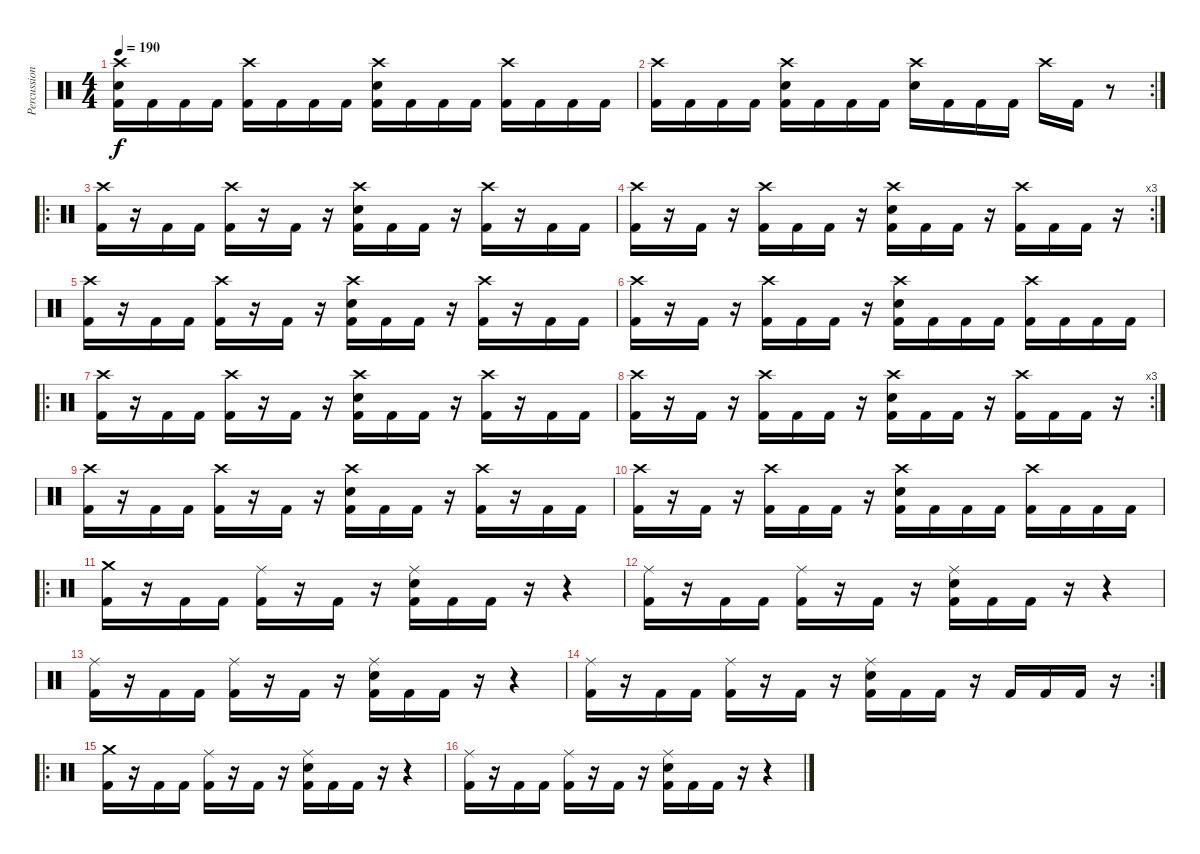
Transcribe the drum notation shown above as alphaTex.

\track ("Percussion" "Percussion") {instrument percussion}
\staff {score}
\articulation defaults
\ts (4 4)
\tempo 190
\clef neutral
\ks c
("Crash high (hit)" "Electric Snare (hit)" "Kick (hit) 2").16{dy f} "Kick (hit) 2".16 "Kick (hit) 2".16 "Kick (hit) 2".16 ("Crash high (hit)" "Kick (hit) 2").16 "Kick (hit) 2".16 "Kick (hit) 2".16 "Kick (hit) 2".16 ("Crash high (hit)" "Electric Snare (hit)" "Kick (hit) 2").16 "Kick (hit) 2".16 "Kick (hit) 2".16 "Kick (hit) 2".16 ("Crash high (hit)" "Kick (hit) 2").16 "Kick (hit) 2".16 "Kick (hit) 2".16 "Kick (hit) 2".16 |
\rc 2
("Crash high (hit)" "Kick (hit) 2").16 "Kick (hit) 2".16 "Kick (hit) 2".16 "Kick (hit) 2".16 ("Crash high (hit)" "Electric Snare (hit)" "Kick (hit) 2").16 "Kick (hit) 2".16 "Kick (hit) 2".16 "Kick (hit) 2".16 ("Crash high (hit)" "Electric Snare (hit)").16 "Kick (hit) 2".16 "Kick (hit) 2".16 "Kick (hit) 2".16 "Crash high (hit)".16 "Kick (hit) 2".16 r.8 |
\ro
("Crash high (hit)" "Kick (hit) 2").16 r.16 "Kick (hit) 2".16 "Kick (hit) 2".16 ("Crash high (hit)" "Kick (hit) 2").16 r.16 "Kick (hit) 2".16 r.16 ("Crash high (hit)" "Electric Snare (hit)" "Kick (hit) 2").16 "Kick (hit) 2".16 "Kick (hit) 2".16 r.16 ("Crash high (hit)" "Kick (hit) 2").16 r.16 "Kick (hit) 2".16 "Kick (hit) 2".16 |
\rc 3
("Crash high (hit)" "Kick (hit) 2").16 r.16 "Kick (hit) 2".16 r.16 ("Crash high (hit)" "Kick (hit) 2").16 "Kick (hit) 2".16 "Kick (hit) 2".16 r.16 ("Crash high (hit)" "Electric Snare (hit)" "Kick (hit) 2").16 "Kick (hit) 2".16 "Kick (hit) 2".16 r.16 ("Crash high (hit)" "Kick (hit) 2").16 "Kick (hit) 2".16 "Kick (hit) 2".16 r.16 |
("Crash high (hit)" "Kick (hit) 2").16 r.16 "Kick (hit) 2".16 "Kick (hit) 2".16 ("Crash high (hit)" "Kick (hit) 2").16 r.16 "Kick (hit) 2".16 r.16 ("Crash high (hit)" "Electric Snare (hit)" "Kick (hit) 2").16 "Kick (hit) 2".16 "Kick (hit) 2".16 r.16 ("Crash high (hit)" "Kick (hit) 2").16 r.16 "Kick (hit) 2".16 "Kick (hit) 2".16 |
("Crash high (hit)" "Kick (hit) 2").16 r.16 "Kick (hit) 2".16 r.16 ("Crash high (hit)" "Kick (hit) 2").16 "Kick (hit) 2".16 "Kick (hit) 2".16 r.16 ("Crash high (hit)" "Electric Snare (hit)" "Kick (hit) 2").16 "Kick (hit) 2".16 "Kick (hit) 2".16 "Kick (hit) 2".16 ("Crash high (hit)" "Kick (hit) 2").16 "Kick (hit) 2".16 "Kick (hit) 2".16 "Kick (hit) 2".16 |
\ro
("Crash high (hit)" "Kick (hit) 2").16 r.16 "Kick (hit) 2".16 "Kick (hit) 2".16 ("Crash high (hit)" "Kick (hit) 2").16 r.16 "Kick (hit) 2".16 r.16 ("Crash high (hit)" "Electric Snare (hit)" "Kick (hit) 2").16 "Kick (hit) 2".16 "Kick (hit) 2".16 r.16 ("Crash high (hit)" "Kick (hit) 2").16 r.16 "Kick (hit) 2".16 "Kick (hit) 2".16 |
\rc 3
("Crash high (hit)" "Kick (hit) 2").16 r.16 "Kick (hit) 2".16 r.16 ("Crash high (hit)" "Kick (hit) 2").16 "Kick (hit) 2".16 "Kick (hit) 2".16 r.16 ("Crash high (hit)" "Electric Snare (hit)" "Kick (hit) 2").16 "Kick (hit) 2".16 "Kick (hit) 2".16 r.16 ("Crash high (hit)" "Kick (hit) 2").16 "Kick (hit) 2".16 "Kick (hit) 2".16 r.16 |
("Crash high (hit)" "Kick (hit) 2").16 r.16 "Kick (hit) 2".16 "Kick (hit) 2".16 ("Crash high (hit)" "Kick (hit) 2").16 r.16 "Kick (hit) 2".16 r.16 ("Crash high (hit)" "Electric Snare (hit)" "Kick (hit) 2").16 "Kick (hit) 2".16 "Kick (hit) 2".16 r.16 ("Crash high (hit)" "Kick (hit) 2").16 r.16 "Kick (hit) 2".16 "Kick (hit) 2".16 |
("Crash high (hit)" "Kick (hit) 2").16 r.16 "Kick (hit) 2".16 r.16 ("Crash high (hit)" "Kick (hit) 2").16 "Kick (hit) 2".16 "Kick (hit) 2".16 r.16 ("Crash high (hit)" "Electric Snare (hit)" "Kick (hit) 2").16 "Kick (hit) 2".16 "Kick (hit) 2".16 "Kick (hit) 2".16 ("Crash high (hit)" "Kick (hit) 2").16 "Kick (hit) 2".16 "Kick (hit) 2".16 "Kick (hit) 2".16 |
\ro
("Crash medium (hit)" "Kick (hit) 2").16 r.16 "Kick (hit) 2".16 "Kick (hit) 2".16 ("Ride (middle)" "Kick (hit) 2").16 r.16 "Kick (hit) 2".16 r.16 ("Ride (middle)" "Electric Snare (hit)" "Kick (hit) 2").16 "Kick (hit) 2".16 "Kick (hit) 2".16 r.16 r.4 |
("Ride (middle)" "Kick (hit) 2").16 r.16 "Kick (hit) 2".16 "Kick (hit) 2".16 ("Ride (middle)" "Kick (hit) 2").16 r.16 "Kick (hit) 2".16 r.16 ("Ride (middle)" "Electric Snare (hit)" "Kick (hit) 2").16 "Kick (hit) 2".16 "Kick (hit) 2".16 r.16 r.4 |
("Ride (middle)" "Kick (hit) 2").16 r.16 "Kick (hit) 2".16 "Kick (hit) 2".16 ("Ride (middle)" "Kick (hit) 2").16 r.16 "Kick (hit) 2".16 r.16 ("Ride (middle)" "Electric Snare (hit)" "Kick (hit) 2").16 "Kick (hit) 2".16 "Kick (hit) 2".16 r.16 r.4 |
\rc 2
("Ride (middle)" "Kick (hit) 2").16 r.16 "Kick (hit) 2".16 "Kick (hit) 2".16 ("Ride (middle)" "Kick (hit) 2").16 r.16 "Kick (hit) 2".16 r.16 ("Ride (middle)" "Electric Snare (hit)" "Kick (hit) 2").16 "Kick (hit) 2".16 "Kick (hit) 2".16 r.16 "Kick (hit) 2".16 "Kick (hit) 2".16 "Kick (hit) 2".16 r.16 |
\ro
("Crash medium (hit)" "Kick (hit) 2").16 r.16 "Kick (hit) 2".16 "Kick (hit) 2".16 ("Ride (middle)" "Kick (hit) 2").16 r.16 "Kick (hit) 2".16 r.16 ("Ride (middle)" "Electric Snare (hit)" "Kick (hit) 2").16 "Kick (hit) 2".16 "Kick (hit) 2".16 r.16 r.4 |
("Ride (middle)" "Kick (hit) 2").16 r.16 "Kick (hit) 2".16 "Kick (hit) 2".16 ("Ride (middle)" "Kick (hit) 2").16 r.16 "Kick (hit) 2".16 r.16 ("Ride (middle)" "Electric Snare (hit)" "Kick (hit) 2").16 "Kick (hit) 2".16 "Kick (hit) 2".16 r.16 r.4
